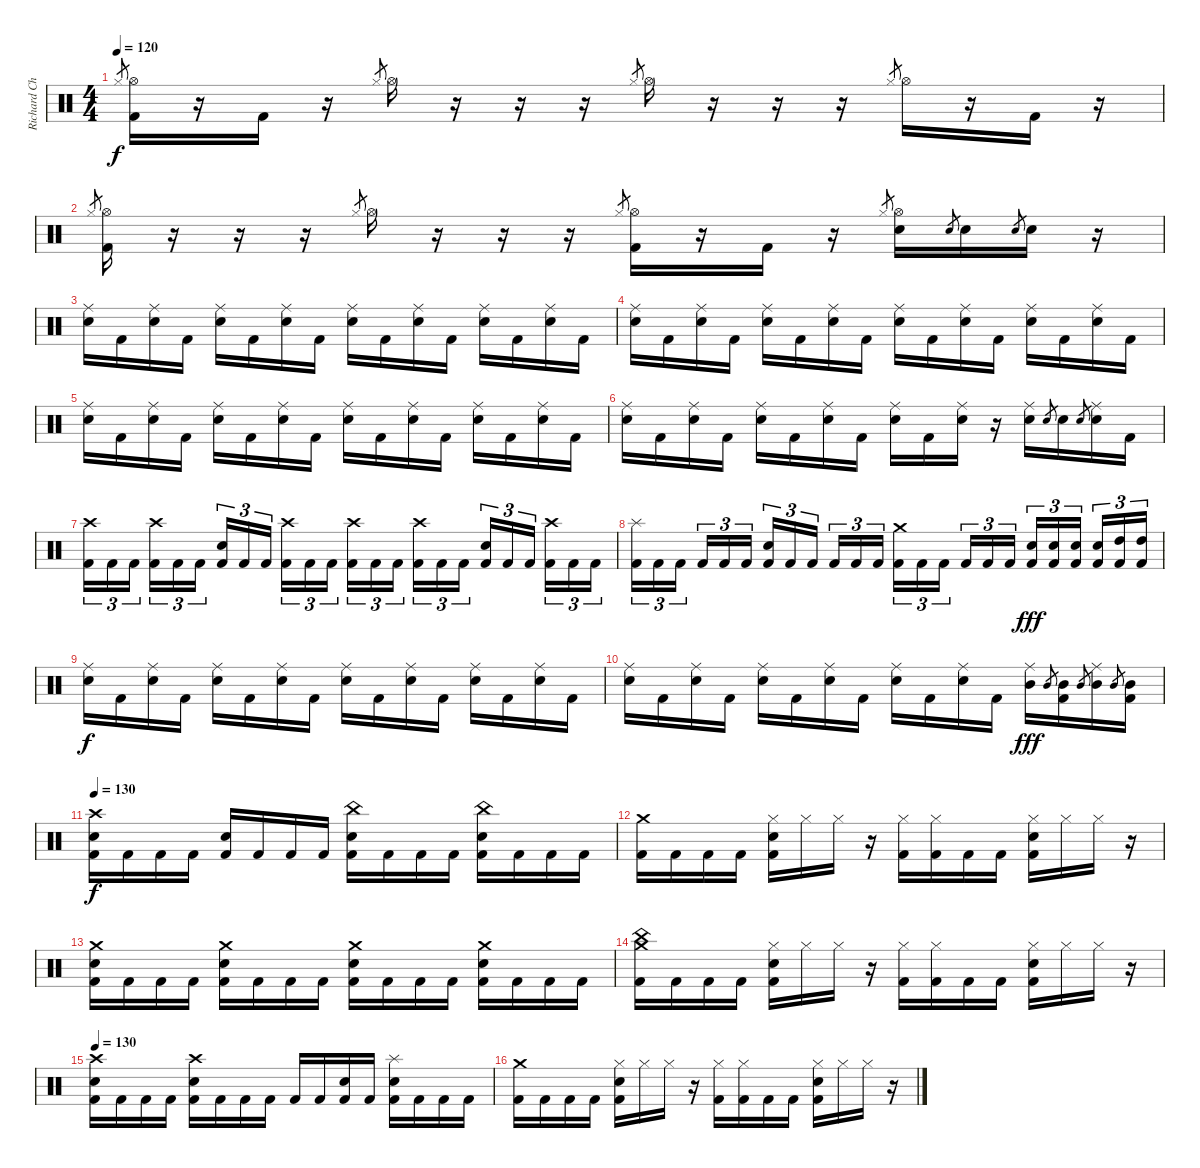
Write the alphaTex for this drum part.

\track ("Richard Christy" "Richard Ch") {instrument percussion}
\staff {score}
\articulation defaults
\ts (4 4)
\tempo 120
\clef neutral
\ks c "Hi-Hat (closed)".8{gr dy f}
("Hi-Hat (open)" "Kick (hit) 2").16 r.16 "Kick (hit) 2".16 r.16 "Hi-Hat (closed)".8{gr} "Hi-Hat (open)".16 r.16 r.16 r.16 "Hi-Hat (closed)".8{gr} "Hi-Hat (open)".16 r.16 r.16 r.16 "Hi-Hat (closed)".8{gr} "Hi-Hat (open)".16 r.16 "Kick (hit) 2".16 r.16 |
"Hi-Hat (closed)".8{gr} ("Hi-Hat (open)" "Kick (hit) 2").16 r.16 r.16 r.16 "Hi-Hat (closed)".8{gr} "Hi-Hat (open)".16 r.16 r.16 r.16 "Hi-Hat (closed)".8{gr} ("Hi-Hat (open)" "Kick (hit) 2").16 r.16 "Kick (hit) 2".16 r.16 "Hi-Hat (closed)".8{gr} ("Hi-Hat (open)" "Snare (hit) 2").16 "Snare (hit) 2".8{gr} "Snare (hit) 2".16 "Snare (hit) 2".8{gr} "Snare (hit) 2".16 r.16 |
("Ride (middle)" "Snare (hit) 2").16 "Kick (hit) 2".16 ("Ride (middle)" "Snare (hit) 2").16 "Kick (hit) 2".16 ("Ride (middle)" "Snare (hit) 2").16 "Kick (hit) 2".16 ("Ride (middle)" "Snare (hit) 2").16 "Kick (hit) 2".16 ("Ride (middle)" "Snare (hit) 2").16 "Kick (hit) 2".16 ("Ride (middle)" "Snare (hit) 2").16 "Kick (hit) 2".16 ("Ride (middle)" "Snare (hit) 2").16 "Kick (hit) 2".16 ("Ride (middle)" "Snare (hit) 2").16 "Kick (hit) 2".16 |
("Ride (middle)" "Snare (hit) 2").16 "Kick (hit) 2".16 ("Ride (middle)" "Snare (hit) 2").16 "Kick (hit) 2".16 ("Ride (middle)" "Snare (hit) 2").16 "Kick (hit) 2".16 ("Ride (middle)" "Snare (hit) 2").16 "Kick (hit) 2".16 ("Ride (middle)" "Snare (hit) 2").16 "Kick (hit) 2".16 ("Ride (middle)" "Snare (hit) 2").16 "Kick (hit) 2".16 ("Ride (middle)" "Snare (hit) 2").16 "Kick (hit) 2".16 ("Ride (middle)" "Snare (hit) 2").16 "Kick (hit) 2".16 |
("Ride (middle)" "Snare (hit) 2").16 "Kick (hit) 2".16 ("Ride (middle)" "Snare (hit) 2").16 "Kick (hit) 2".16 ("Ride (middle)" "Snare (hit) 2").16 "Kick (hit) 2".16 ("Ride (middle)" "Snare (hit) 2").16 "Kick (hit) 2".16 ("Ride (middle)" "Snare (hit) 2").16 "Kick (hit) 2".16 ("Ride (middle)" "Snare (hit) 2").16 "Kick (hit) 2".16 ("Ride (middle)" "Snare (hit) 2").16 "Kick (hit) 2".16 ("Ride (middle)" "Snare (hit) 2").16 "Kick (hit) 2".16 |
("Ride (middle)" "Snare (hit) 2").16 "Kick (hit) 2".16 ("Ride (middle)" "Snare (hit) 2").16 "Kick (hit) 2".16 ("Ride (middle)" "Snare (hit) 2").16 "Kick (hit) 2".16 ("Ride (middle)" "Snare (hit) 2").16 "Kick (hit) 2".16 ("Ride (middle)" "Snare (hit) 2").16 "Kick (hit) 2".16 ("Ride (middle)" "Snare (hit) 2").16 r.16 ("Ride (middle)" "Snare (hit) 2").16 "Snare (hit) 2".8{gr} "Snare (hit) 2".16 "Snare (hit) 2".8{gr} ("Ride (middle)" "Snare (hit) 2").16 "Kick (hit) 2".16 |
("Crash high (hit)" "Kick (hit) 2").16{tu (3 2)} "Kick (hit) 2".16{tu (3 2)} "Kick (hit) 2".16{tu (3 2) beam splitsecondary} ("Crash high (hit)" "Kick (hit) 2").16{tu (3 2)} "Kick (hit) 2".16{tu (3 2)} "Kick (hit) 2".16{tu (3 2)} ("Snare (hit) 2" "Kick (hit) 2").16{tu (3 2)} "Kick (hit) 2".16{tu (3 2)} "Kick (hit) 2".16{tu (3 2) beam splitsecondary} ("Crash high (hit)" "Kick (hit) 2").16{tu (3 2)} "Kick (hit) 2".16{tu (3 2)} "Kick (hit) 2".16{tu (3 2)} ("Crash high (hit)" "Kick (hit) 2").16{tu (3 2)} "Kick (hit) 2".16{tu (3 2)} "Kick (hit) 2".16{tu (3 2) beam splitsecondary} ("Crash high (hit)" "Kick (hit) 2").16{tu (3 2)} "Kick (hit) 2".16{tu (3 2)} "Kick (hit) 2".16{tu (3 2)} ("Snare (hit) 2" "Kick (hit) 2").16{tu (3 2)} "Kick (hit) 2".16{tu (3 2)} "Kick (hit) 2".16{tu (3 2) beam splitsecondary} ("Crash high (hit)" "Kick (hit) 2").16{tu (3 2)} "Kick (hit) 2".16{tu (3 2)} "Kick (hit) 2".16{tu (3 2)} |
("Splash (hit)" "Kick (hit) 2").16{tu (3 2)} "Kick (hit) 2".16{tu (3 2)} "Kick (hit) 2".16{tu (3 2) beam splitsecondary} "Kick (hit) 2".16{tu (3 2)} "Kick (hit) 2".16{tu (3 2)} "Kick (hit) 2".16{tu (3 2)} ("Snare (hit) 2" "Kick (hit) 2").16{tu (3 2)} "Kick (hit) 2".16{tu (3 2)} "Kick (hit) 2".16{tu (3 2) beam splitsecondary} "Kick (hit) 2".16{tu (3 2)} "Kick (hit) 2".16{tu (3 2)} "Kick (hit) 2".16{tu (3 2)} ("Crash medium (hit)" "Kick (hit) 2").16{tu (3 2)} "Kick (hit) 2".16{tu (3 2)} "Kick (hit) 2".16{tu (3 2) beam splitsecondary} "Kick (hit) 2".16{tu (3 2)} "Kick (hit) 2".16{tu (3 2)} "Kick (hit) 2".16{tu (3 2)} ("Electric Snare (hit)" "Kick (hit) 2").16{tu (3 2) dy fff} ("Electric Snare (hit)" "Kick (hit) 2").16{tu (3 2)} ("Snare (hit) 2" "Kick (hit) 2").16{tu (3 2) beam splitsecondary} ("Snare (hit) 2" "Kick (hit) 2").16{tu (3 2)} ("High Tom (hit)" "Kick (hit) 2").16{tu (3 2)} ("High Tom (hit)" "Kick (hit) 2").16{tu (3 2)} |
("Ride (middle)" "Snare (hit) 2").16{dy f} "Kick (hit) 2".16 ("Ride (middle)" "Snare (hit) 2").16 "Kick (hit) 2".16 ("Ride (middle)" "Snare (hit) 2").16 "Kick (hit) 2".16 ("Ride (middle)" "Snare (hit) 2").16 "Kick (hit) 2".16 ("Ride (middle)" "Snare (hit) 2").16 "Kick (hit) 2".16 ("Ride (middle)" "Snare (hit) 2").16 "Kick (hit) 2".16 ("Ride (middle)" "Snare (hit) 2").16 "Kick (hit) 2".16 ("Ride (middle)" "Snare (hit) 2").16 "Kick (hit) 2".16 |
("Ride (middle)" "Snare (hit) 2").16 "Kick (hit) 2".16 ("Ride (middle)" "Snare (hit) 2").16 "Kick (hit) 2".16 ("Ride (middle)" "Snare (hit) 2").16 "Kick (hit) 2".16 ("Ride (middle)" "Snare (hit) 2").16 "Kick (hit) 2".16 ("Ride (middle)" "Snare (hit) 2").16 "Kick (hit) 2".16 ("Ride (middle)" "Snare (hit) 2").16 "Kick (hit) 2".16 ("Ride (middle)" "Mid Tom (hit)").16{dy fff} "Mid Tom (hit)".8{gr} ("Mid Tom (hit)" "Kick (hit) 2").16 "Mid Tom (hit)".8{gr} ("Ride (middle)" "Mid Tom (hit)").16 "Mid Tom (hit)".8{gr} ("Mid Tom (hit)" "Kick (hit) 2").16 |
\tempo 130
("Crash high (hit)" "Snare (hit) 2" "Kick (hit) 2").16{dy f} "Kick (hit) 2".16 "Kick (hit) 2".16 "Kick (hit) 2".16 ("Snare (hit) 2" "Kick (hit) 2").16 "Kick (hit) 2".16 "Kick (hit) 2".16 "Kick (hit) 2".16 ("China (hit)" "Snare (hit) 2" "Kick (hit) 2").16 "Kick (hit) 2".16 "Kick (hit) 2".16 "Kick (hit) 2".16 ("China (hit)" "Snare (hit) 2" "Kick (hit) 2").16 "Kick (hit) 2".16 "Kick (hit) 2".16 "Kick (hit) 2".16 |
("Crash medium (hit)" "Kick (hit) 2").16 "Kick (hit) 2".16 "Kick (hit) 2".16 "Kick (hit) 2".16 ("Hi-Hat (closed)" "Snare (hit) 2" "Kick (hit) 2").16 "Hi-Hat (closed)".16 "Hi-Hat (closed)".16 r.16 ("Hi-Hat (closed)" "Kick (hit) 2").16 ("Hi-Hat (closed)" "Kick (hit) 2").16 "Kick (hit) 2".16 "Kick (hit) 2".16 ("Hi-Hat (closed)" "Snare (hit) 2" "Kick (hit) 2").16 "Hi-Hat (closed)".16 "Hi-Hat (closed)".16 r.16 |
("Crash medium (hit)" "Snare (hit) 2" "Kick (hit) 2").16 "Kick (hit) 2".16 "Kick (hit) 2".16 "Kick (hit) 2".16 ("Crash medium (hit)" "Snare (hit) 2" "Kick (hit) 2").16 "Kick (hit) 2".16 "Kick (hit) 2".16 "Kick (hit) 2".16 ("Crash medium (hit)" "Snare (hit) 2" "Kick (hit) 2").16 "Kick (hit) 2".16 "Kick (hit) 2".16 "Kick (hit) 2".16 ("Crash medium (hit)" "Snare (hit) 2" "Kick (hit) 2").16 "Kick (hit) 2".16 "Kick (hit) 2".16 "Kick (hit) 2".16 |
("Crash medium (hit)" "China (hit)" "Kick (hit) 2").16 "Kick (hit) 2".16 "Kick (hit) 2".16 "Kick (hit) 2".16 ("Hi-Hat (closed)" "Snare (hit) 2" "Kick (hit) 2").16 "Hi-Hat (closed)".16 "Hi-Hat (closed)".16 r.16 ("Hi-Hat (closed)" "Kick (hit) 2").16 ("Hi-Hat (closed)" "Kick (hit) 2").16 "Kick (hit) 2".16 "Kick (hit) 2".16 ("Hi-Hat (closed)" "Snare (hit) 2" "Kick (hit) 2").16 "Hi-Hat (closed)".16 "Hi-Hat (closed)".16 r.16 |
\tempo 130
("Crash high (hit)" "Snare (hit) 2" "Kick (hit) 2").16 "Kick (hit) 2".16 "Kick (hit) 2".16 "Kick (hit) 2".16 ("Crash high (hit)" "Snare (hit) 2" "Kick (hit) 2").16 "Kick (hit) 2".16 "Kick (hit) 2".16 "Kick (hit) 2".16 "Kick (hit) 2".16 "Kick (hit) 2".16 ("Snare (hit) 2" "Kick (hit) 2").16 "Kick (hit) 2".16 ("Splash (hit)" "Snare (hit) 2" "Kick (hit) 2").16 "Kick (hit) 2".16 "Kick (hit) 2".16 "Kick (hit) 2".16 |
("Crash medium (hit)" "Kick (hit) 2").16 "Kick (hit) 2".16 "Kick (hit) 2".16 "Kick (hit) 2".16 ("Hi-Hat (closed)" "Snare (hit) 2" "Kick (hit) 2").16 "Hi-Hat (closed)".16 "Hi-Hat (closed)".16 r.16 ("Hi-Hat (closed)" "Kick (hit) 2").16 ("Hi-Hat (closed)" "Kick (hit) 2").16 "Kick (hit) 2".16 "Kick (hit) 2".16 ("Hi-Hat (closed)" "Snare (hit) 2" "Kick (hit) 2").16 "Hi-Hat (closed)".16 "Hi-Hat (closed)".16 r.16
